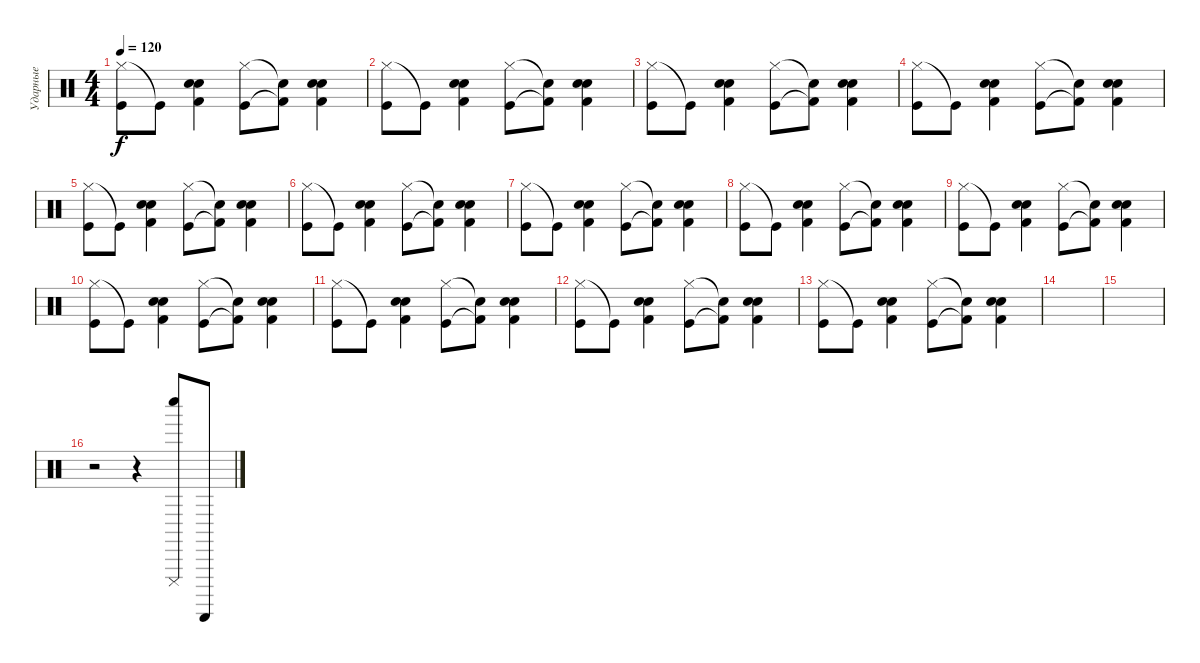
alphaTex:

\track ("Ударные" "Ударные") {instrument percussion}
\staff {score}
\articulation defaults
\ts (4 4)
\tempo 120
\clef neutral
\ks c
("Hi-Hat (closed)" "Kick (hit)").8{dy f} "Kick (hit)"{t}.8 ("Snare (hit) 2" "Kick (hit) 2" "Electric Snare (hit)").4 ("Hi-Hat (closed)" "Kick (hit)").8 ("Snare (hit) 2"{t} "Kick (hit) 2"{t}).8 ("Snare (hit) 2" "Kick (hit) 2" "Electric Snare (hit)").4 |
("Hi-Hat (closed)" "Kick (hit)").8 "Kick (hit)"{t}.8 ("Snare (hit) 2" "Kick (hit) 2" "Electric Snare (hit)").4 ("Hi-Hat (closed)" "Kick (hit)").8 ("Snare (hit) 2"{t} "Kick (hit) 2"{t}).8 ("Snare (hit) 2" "Kick (hit) 2" "Electric Snare (hit)").4 |
("Hi-Hat (closed)" "Kick (hit)").8 "Kick (hit)"{t}.8 ("Snare (hit) 2" "Kick (hit) 2" "Electric Snare (hit)").4 ("Hi-Hat (closed)" "Kick (hit)").8 ("Snare (hit) 2"{t} "Kick (hit) 2"{t}).8 ("Snare (hit) 2" "Kick (hit) 2" "Electric Snare (hit)").4 |
("Hi-Hat (closed)" "Kick (hit)").8 "Kick (hit)"{t}.8 ("Snare (hit) 2" "Kick (hit) 2" "Electric Snare (hit)").4 ("Hi-Hat (closed)" "Kick (hit)").8 ("Snare (hit) 2"{t} "Kick (hit) 2"{t}).8 ("Snare (hit) 2" "Kick (hit) 2" "Electric Snare (hit)").4 |
("Hi-Hat (closed)" "Kick (hit)").8 "Kick (hit)"{t}.8 ("Snare (hit) 2" "Kick (hit) 2" "Electric Snare (hit)").4 ("Hi-Hat (closed)" "Kick (hit)").8 ("Snare (hit) 2"{t} "Kick (hit) 2"{t}).8 ("Snare (hit) 2" "Kick (hit) 2" "Electric Snare (hit)").4 |
("Hi-Hat (closed)" "Kick (hit)").8 "Kick (hit)"{t}.8 ("Snare (hit) 2" "Kick (hit) 2" "Electric Snare (hit)").4 ("Hi-Hat (closed)" "Kick (hit)").8 ("Snare (hit) 2"{t} "Kick (hit) 2"{t}).8 ("Snare (hit) 2" "Kick (hit) 2" "Electric Snare (hit)").4 |
("Hi-Hat (closed)" "Kick (hit)").8 "Kick (hit)"{t}.8 ("Snare (hit) 2" "Kick (hit) 2" "Electric Snare (hit)").4 ("Hi-Hat (closed)" "Kick (hit)").8 ("Snare (hit) 2"{t} "Kick (hit) 2"{t}).8 ("Snare (hit) 2" "Kick (hit) 2" "Electric Snare (hit)").4 |
("Hi-Hat (closed)" "Kick (hit)").8 "Kick (hit)"{t}.8 ("Snare (hit) 2" "Kick (hit) 2" "Electric Snare (hit)").4 ("Hi-Hat (closed)" "Kick (hit)").8 ("Snare (hit) 2"{t} "Kick (hit) 2"{t}).8 ("Snare (hit) 2" "Kick (hit) 2" "Electric Snare (hit)").4 |
("Hi-Hat (closed)" "Kick (hit)").8 "Kick (hit)"{t}.8 ("Snare (hit) 2" "Kick (hit) 2" "Electric Snare (hit)").4 ("Hi-Hat (closed)" "Kick (hit)").8 ("Snare (hit) 2"{t} "Kick (hit) 2"{t}).8 ("Snare (hit) 2" "Kick (hit) 2" "Electric Snare (hit)").4 |
("Hi-Hat (closed)" "Kick (hit)").8 "Kick (hit)"{t}.8 ("Snare (hit) 2" "Kick (hit) 2" "Electric Snare (hit)").4 ("Hi-Hat (closed)" "Kick (hit)").8 ("Snare (hit) 2"{t} "Kick (hit) 2"{t}).8 ("Snare (hit) 2" "Kick (hit) 2" "Electric Snare (hit)").4 |
("Hi-Hat (closed)" "Kick (hit)").8 "Kick (hit)"{t}.8 ("Snare (hit) 2" "Kick (hit) 2" "Electric Snare (hit)").4 ("Hi-Hat (closed)" "Kick (hit)").8 ("Snare (hit) 2"{t} "Kick (hit) 2"{t}).8 ("Snare (hit) 2" "Kick (hit) 2" "Electric Snare (hit)").4 |
("Hi-Hat (closed)" "Kick (hit)").8 "Kick (hit)"{t}.8 ("Snare (hit) 2" "Kick (hit) 2" "Electric Snare (hit)").4 ("Hi-Hat (closed)" "Kick (hit)").8 ("Snare (hit) 2"{t} "Kick (hit) 2"{t}).8 ("Snare (hit) 2" "Kick (hit) 2" "Electric Snare (hit)").4 |
("Hi-Hat (closed)" "Kick (hit)").8 "Kick (hit)"{t}.8 ("Snare (hit) 2" "Kick (hit) 2" "Electric Snare (hit)").4 ("Hi-Hat (closed)" "Kick (hit)").8 ("Snare (hit) 2"{t} "Kick (hit) 2"{t}).8 ("Snare (hit) 2" "Kick (hit) 2" "Electric Snare (hit)").4 |
|
|
r.2 r.4 ("Whistle low (hit)" "Cuica (mute)").8{volume 16} "Guiro (scrap-return)".8
